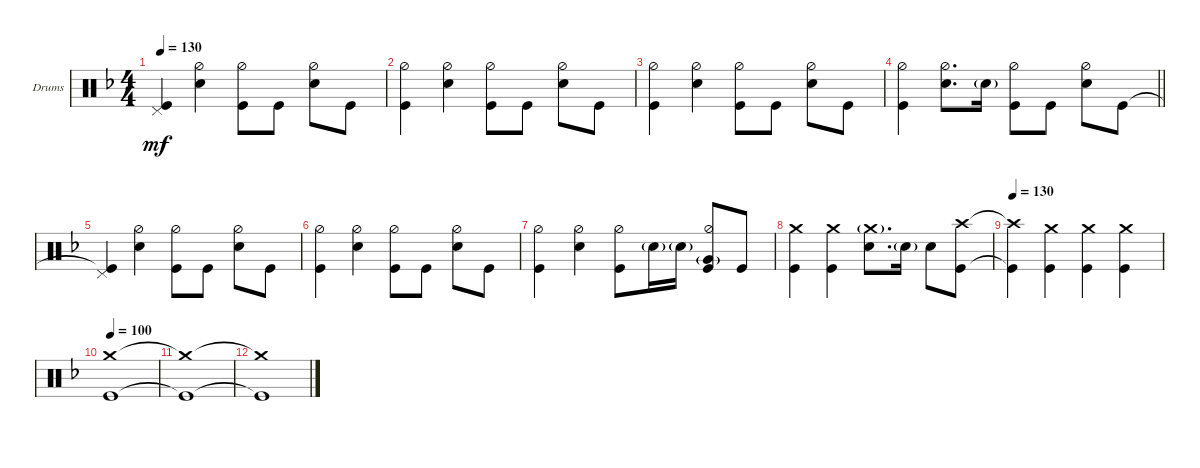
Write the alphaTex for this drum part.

\defaultSystemsLayout 4
\bracketExtendMode groupsimilarinstruments
\firstSystemTrackNameOrientation horizontal
\otherSystemsTrackNameOrientation horizontal
\track ("Drumkit" "Drums") {instrument percussion}
\staff {score}
\articulation defaults
\ts (4 4)
\tempo 130
\clef neutral
\ks dminor
("Kick (hit)"{t} "Pedal Hi-Hat (hit)").4{dy mf} ("Hi-Hat (half)" "Snare (hit) 2").4 ("Kick (hit)" "Hi-Hat (half)").8 "Kick (hit)".8 ("Snare (hit) 2" "Hi-Hat (half)").8 "Kick (hit)".8 |
("Kick (hit)" "Hi-Hat (half)").4 ("Hi-Hat (half)" "Snare (hit) 2").4 ("Kick (hit)" "Hi-Hat (half)").8 "Kick (hit)".8 ("Snare (hit) 2" "Hi-Hat (half)").8 "Kick (hit)".8 |
("Kick (hit)" "Hi-Hat (half)").4 ("Hi-Hat (half)" "Snare (hit) 2").4 ("Kick (hit)" "Hi-Hat (half)").8 "Kick (hit)".8 ("Snare (hit) 2" "Hi-Hat (half)").8 "Kick (hit)".8 |
\barLineRight lightlight
("Kick (hit)" "Hi-Hat (half)").4 ("Hi-Hat (half)" "Snare (hit) 2").8{d} "Snare (hit) 2"{g}.16 ("Kick (hit)" "Hi-Hat (half)").8 "Kick (hit)".8 ("Snare (hit) 2" "Hi-Hat (half)").8 "Kick (hit)".8 |
("Kick (hit)"{t} "Pedal Hi-Hat (hit)").4 ("Hi-Hat (half)" "Snare (hit) 2").4 ("Kick (hit)" "Hi-Hat (half)").8 "Kick (hit)".8 ("Snare (hit) 2" "Hi-Hat (half)").8 "Kick (hit)".8 |
("Kick (hit)" "Hi-Hat (half)").4 ("Hi-Hat (half)" "Snare (hit) 2").4 ("Kick (hit)" "Hi-Hat (half)").8 "Kick (hit)".8 ("Snare (hit) 2" "Hi-Hat (half)").8 "Kick (hit)".8 |
("Kick (hit)" "Hi-Hat (half)").4 ("Hi-Hat (half)" "Snare (hit) 2").4 ("Kick (hit)" "Hi-Hat (half)").8 "Snare (hit) 2"{g}.16 "Snare (hit) 2"{g}.16 ("Hi-Hat (half)" "Kick (hit)" "Very Low Tom (hit)"{g}).8 "Kick (hit)".8 |
("Crash medium (hit)" "Kick (hit)").4 ("Crash medium (hit)" "Kick (hit)").4 ("Snare (hit) 2" "Crash medium (hit)"{g}).8{d} "Snare (hit) 2"{g}.16 "Snare (hit) 2".8 ("Kick (hit)" "Crash high (hit)").8 |
\tempo 130
("Kick (hit)"{t} "Crash high (hit)"{t}).4 ("Crash medium (hit)" "Kick (hit)").4 ("Crash medium (hit)" "Kick (hit)").4 ("Crash medium (hit)" "Kick (hit)").4 |
\tempo (100 0.025)
("Crash medium (hit)" "Kick (hit)").1 |
("Crash medium (hit)"{t} "Kick (hit)"{t}).1 |
("Crash medium (hit)"{t} "Kick (hit)"{t}).1
